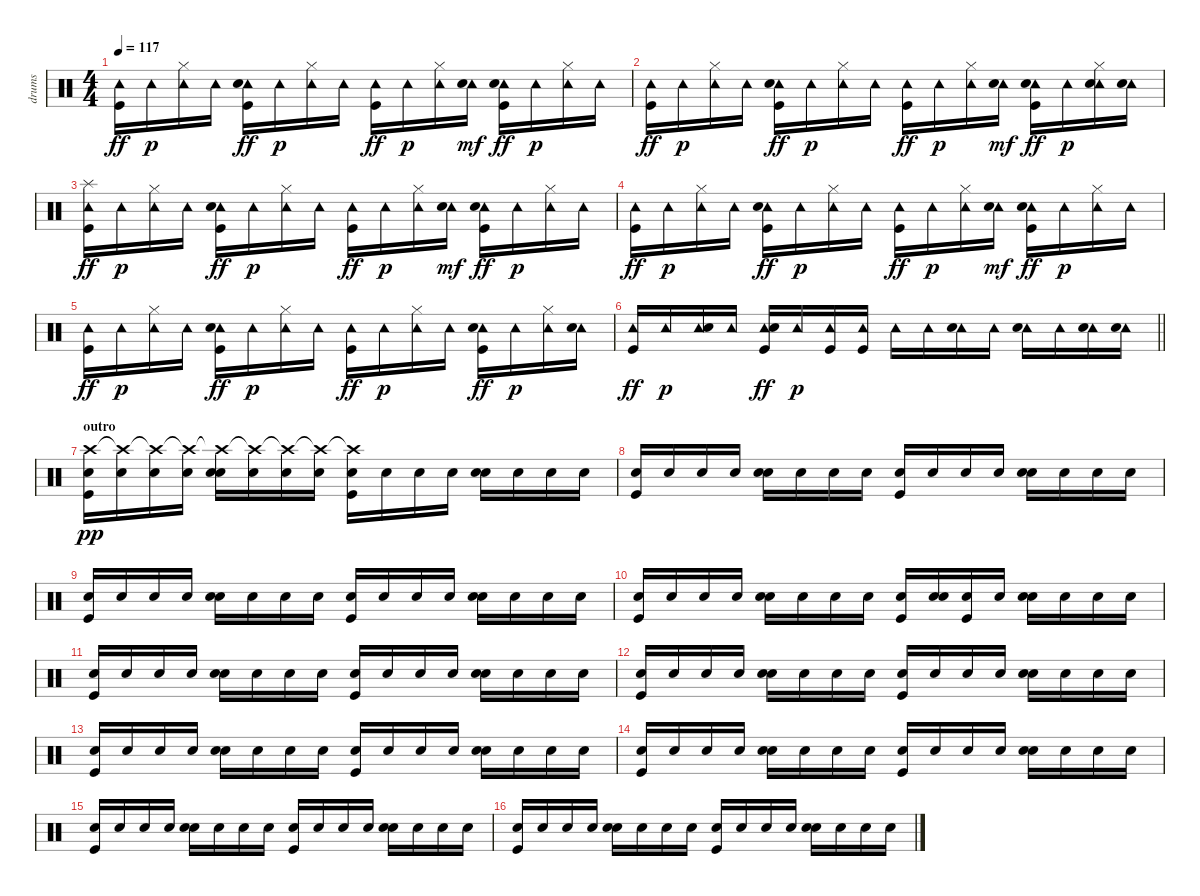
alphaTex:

\track ("drums" "drums") {instrument percussion}
\staff {score}
\articulation defaults
\ts (4 4)
\tempo 117
\clef neutral
\ks c
("Tambourine (hit)" "Kick (hit)").16{dy ff} "Tambourine (hit)".16{dy p} ("Hi-Hat (closed)" "Tambourine (hit)").16 "Tambourine (hit)".16 ("Tambourine (hit)" "Snare (hit) 2" "Kick (hit)").16{dy ff} "Tambourine (hit)".16{dy p} ("Hi-Hat (closed)" "Tambourine (hit)").16 "Tambourine (hit)".16 ("Tambourine (hit)" "Kick (hit)").16{dy ff} "Tambourine (hit)".16{dy p} ("Hi-Hat (closed)" "Tambourine (hit)").16 ("Tambourine (hit)" "Electric Snare (hit)").16{dy mf} ("Tambourine (hit)" "Electric Snare (hit)" "Kick (hit)").16{dy ff} "Tambourine (hit)".16{dy p} ("Hi-Hat (closed)" "Tambourine (hit)").16 "Tambourine (hit)".16 |
("Tambourine (hit)" "Kick (hit)").16{dy ff} "Tambourine (hit)".16{dy p} ("Hi-Hat (closed)" "Tambourine (hit)").16 "Tambourine (hit)".16 ("Tambourine (hit)" "Snare (hit) 2" "Kick (hit)").16{dy ff} "Tambourine (hit)".16{dy p} ("Hi-Hat (closed)" "Tambourine (hit)").16 "Tambourine (hit)".16 ("Tambourine (hit)" "Kick (hit)").16{dy ff} "Tambourine (hit)".16{dy p} ("Hi-Hat (closed)" "Tambourine (hit)").16 ("Tambourine (hit)" "Electric Snare (hit)").16{dy mf} ("Tambourine (hit)" "Electric Snare (hit)" "Kick (hit)").16{dy ff} "Tambourine (hit)".16{dy p} ("Hi-Hat (closed)" "Tambourine (hit)" "Electric Snare (hit)").16 ("Tambourine (hit)" "Electric Snare (hit)").16 |
("Splash (hit)" "Tambourine (hit)" "Kick (hit)").16{dy ff} "Tambourine (hit)".16{dy p} ("Hi-Hat (closed)" "Tambourine (hit)").16 "Tambourine (hit)".16 ("Tambourine (hit)" "Snare (hit) 2" "Kick (hit)").16{dy ff} "Tambourine (hit)".16{dy p} ("Hi-Hat (closed)" "Tambourine (hit)").16 "Tambourine (hit)".16 ("Tambourine (hit)" "Kick (hit)").16{dy ff} "Tambourine (hit)".16{dy p} ("Hi-Hat (closed)" "Tambourine (hit)").16 ("Tambourine (hit)" "Electric Snare (hit)").16{dy mf} ("Tambourine (hit)" "Electric Snare (hit)" "Kick (hit)").16{dy ff} "Tambourine (hit)".16{dy p} ("Hi-Hat (closed)" "Tambourine (hit)").16 "Tambourine (hit)".16 |
("Tambourine (hit)" "Kick (hit)").16{dy ff} "Tambourine (hit)".16{dy p} ("Hi-Hat (closed)" "Tambourine (hit)").16 "Tambourine (hit)".16 ("Tambourine (hit)" "Snare (hit) 2" "Kick (hit)").16{dy ff} "Tambourine (hit)".16{dy p} ("Hi-Hat (closed)" "Tambourine (hit)").16 "Tambourine (hit)".16 ("Tambourine (hit)" "Kick (hit)").16{dy ff} "Tambourine (hit)".16{dy p} ("Hi-Hat (closed)" "Tambourine (hit)").16 ("Tambourine (hit)" "Electric Snare (hit)").16{dy mf} ("Tambourine (hit)" "Electric Snare (hit)" "Kick (hit)").16{dy ff} "Tambourine (hit)".16{dy p} ("Hi-Hat (closed)" "Tambourine (hit)").16 "Tambourine (hit)".16 |
("Tambourine (hit)" "Kick (hit)").16{dy ff} "Tambourine (hit)".16{dy p} ("Hi-Hat (closed)" "Tambourine (hit)").16 "Tambourine (hit)".16 ("Tambourine (hit)" "Snare (hit) 2" "Kick (hit)").16{dy ff} "Tambourine (hit)".16{dy p} ("Hi-Hat (closed)" "Tambourine (hit)").16 "Tambourine (hit)".16 ("Tambourine (hit)" "Kick (hit)").16{dy ff} "Tambourine (hit)".16{dy p} ("Hi-Hat (closed)" "Tambourine (hit)").16 "Tambourine (hit)".16 ("Tambourine (hit)" "Snare (hit) 2" "Kick (hit)").16{dy ff} "Tambourine (hit)".16{dy p} ("Hi-Hat (closed)" "Tambourine (hit)").16 ("Tambourine (hit)" "Snare (hit) 2").16 |
\barLineRight lightlight
("Tambourine (hit)" "Kick (hit)").16{dy ff} "Tambourine (hit)".16{dy p} ("Tambourine (hit)" "Snare (hit) 2").16 "Tambourine (hit)".16 ("Tambourine (hit)" "Snare (hit) 2" "Kick (hit)").16{dy ff} "Tambourine (hit)".16{dy p} ("Tambourine (hit)" "Kick (hit)").16 ("Tambourine (hit)" "Kick (hit)").16 "Tambourine (hit)".16 "Tambourine (hit)".16 ("Tambourine (hit)" "Snare (hit) 2").16 "Tambourine (hit)".16 ("Tambourine (hit)" "Snare (hit) 2").16 "Tambourine (hit)".16 ("Tambourine (hit)" "Electric Snare (hit)").16 ("Tambourine (hit)" "Electric Snare (hit)").16 |
\section ("" "outro")
("Crash high (hit)" "Electric Snare (hit)" "Kick (hit)").16{dy pp} ("Crash high (hit)"{t} "Electric Snare (hit)").16 ("Crash high (hit)"{t} "Electric Snare (hit)").16 ("Crash high (hit)"{t} "Electric Snare (hit)").16 ("Crash high (hit)"{t} "Snare (hit) 2" "Electric Snare (hit)").16 ("Crash high (hit)"{t} "Electric Snare (hit)").16 ("Crash high (hit)"{t} "Electric Snare (hit)").16 ("Crash high (hit)"{t} "Electric Snare (hit)").16 ("Crash high (hit)"{t} "Electric Snare (hit)" "Kick (hit)").16 "Electric Snare (hit)".16 "Electric Snare (hit)".16 "Electric Snare (hit)".16 ("Snare (hit) 2" "Electric Snare (hit)").16 "Electric Snare (hit)".16 "Electric Snare (hit)".16 "Electric Snare (hit)".16 |
("Electric Snare (hit)" "Kick (hit)").16 "Electric Snare (hit)".16 "Electric Snare (hit)".16 "Electric Snare (hit)".16 ("Snare (hit) 2" "Electric Snare (hit)").16 "Electric Snare (hit)".16 "Electric Snare (hit)".16 "Electric Snare (hit)".16 ("Electric Snare (hit)" "Kick (hit)").16 "Electric Snare (hit)".16 "Electric Snare (hit)".16 "Electric Snare (hit)".16 ("Snare (hit) 2" "Electric Snare (hit)").16 "Electric Snare (hit)".16 "Electric Snare (hit)".16 "Electric Snare (hit)".16 |
("Electric Snare (hit)" "Kick (hit)").16 "Electric Snare (hit)".16 "Electric Snare (hit)".16 "Electric Snare (hit)".16 ("Snare (hit) 2" "Electric Snare (hit)").16 "Electric Snare (hit)".16 "Electric Snare (hit)".16 "Electric Snare (hit)".16 ("Electric Snare (hit)" "Kick (hit)").16 "Electric Snare (hit)".16 "Electric Snare (hit)".16 "Electric Snare (hit)".16 ("Snare (hit) 2" "Electric Snare (hit)").16 "Electric Snare (hit)".16 "Electric Snare (hit)".16 "Electric Snare (hit)".16 |
("Electric Snare (hit)" "Kick (hit)").16 "Electric Snare (hit)".16 "Electric Snare (hit)".16 "Electric Snare (hit)".16 ("Snare (hit) 2" "Electric Snare (hit)").16 "Electric Snare (hit)".16 "Electric Snare (hit)".16 "Electric Snare (hit)".16 ("Electric Snare (hit)" "Kick (hit)").16 ("Snare (hit) 2" "Electric Snare (hit)").16 ("Electric Snare (hit)" "Kick (hit)").16 "Electric Snare (hit)".16 ("Snare (hit) 2" "Electric Snare (hit)").16 "Electric Snare (hit)".16 "Electric Snare (hit)".16 "Electric Snare (hit)".16 |
("Electric Snare (hit)" "Kick (hit)").16 "Electric Snare (hit)".16 "Electric Snare (hit)".16 "Electric Snare (hit)".16 ("Snare (hit) 2" "Electric Snare (hit)").16 "Electric Snare (hit)".16 "Electric Snare (hit)".16 "Electric Snare (hit)".16 ("Electric Snare (hit)" "Kick (hit)").16 "Electric Snare (hit)".16 "Electric Snare (hit)".16 "Electric Snare (hit)".16 ("Snare (hit) 2" "Electric Snare (hit)").16 "Electric Snare (hit)".16 "Electric Snare (hit)".16 "Electric Snare (hit)".16 |
("Electric Snare (hit)" "Kick (hit)").16 "Electric Snare (hit)".16 "Electric Snare (hit)".16 "Electric Snare (hit)".16 ("Snare (hit) 2" "Electric Snare (hit)").16 "Electric Snare (hit)".16 "Electric Snare (hit)".16 "Electric Snare (hit)".16 ("Electric Snare (hit)" "Kick (hit)").16 "Electric Snare (hit)".16 "Electric Snare (hit)".16 "Electric Snare (hit)".16 ("Snare (hit) 2" "Electric Snare (hit)").16 "Electric Snare (hit)".16 "Electric Snare (hit)".16 "Electric Snare (hit)".16 |
("Electric Snare (hit)" "Kick (hit)").16 "Electric Snare (hit)".16 "Electric Snare (hit)".16 "Electric Snare (hit)".16 ("Snare (hit) 2" "Electric Snare (hit)").16 "Electric Snare (hit)".16 "Electric Snare (hit)".16 "Electric Snare (hit)".16 ("Electric Snare (hit)" "Kick (hit)").16 "Electric Snare (hit)".16 "Electric Snare (hit)".16 "Electric Snare (hit)".16 ("Snare (hit) 2" "Electric Snare (hit)").16 "Electric Snare (hit)".16 "Electric Snare (hit)".16 "Electric Snare (hit)".16 |
("Electric Snare (hit)" "Kick (hit)").16 "Electric Snare (hit)".16 "Electric Snare (hit)".16 "Electric Snare (hit)".16 ("Snare (hit) 2" "Electric Snare (hit)").16 "Electric Snare (hit)".16 "Electric Snare (hit)".16 "Electric Snare (hit)".16 ("Electric Snare (hit)" "Kick (hit)").16 "Electric Snare (hit)".16 "Electric Snare (hit)".16 "Electric Snare (hit)".16 ("Snare (hit) 2" "Electric Snare (hit)").16 "Electric Snare (hit)".16 "Electric Snare (hit)".16 "Electric Snare (hit)".16 |
("Electric Snare (hit)" "Kick (hit)").16{volume 0} "Electric Snare (hit)".16 "Electric Snare (hit)".16 "Electric Snare (hit)".16 ("Snare (hit) 2" "Electric Snare (hit)").16 "Electric Snare (hit)".16 "Electric Snare (hit)".16 "Electric Snare (hit)".16 ("Electric Snare (hit)" "Kick (hit)").16 "Electric Snare (hit)".16 "Electric Snare (hit)".16 "Electric Snare (hit)".16 ("Snare (hit) 2" "Electric Snare (hit)").16 "Electric Snare (hit)".16 "Electric Snare (hit)".16 "Electric Snare (hit)".16 |
("Electric Snare (hit)" "Kick (hit)").16 "Electric Snare (hit)".16 "Electric Snare (hit)".16 "Electric Snare (hit)".16 ("Snare (hit) 2" "Electric Snare (hit)").16 "Electric Snare (hit)".16 "Electric Snare (hit)".16 "Electric Snare (hit)".16 ("Electric Snare (hit)" "Kick (hit)").16 "Electric Snare (hit)".16 "Electric Snare (hit)".16 "Electric Snare (hit)".16 ("Snare (hit) 2" "Electric Snare (hit)").16 "Electric Snare (hit)".16 "Electric Snare (hit)".16 "Electric Snare (hit)".16
